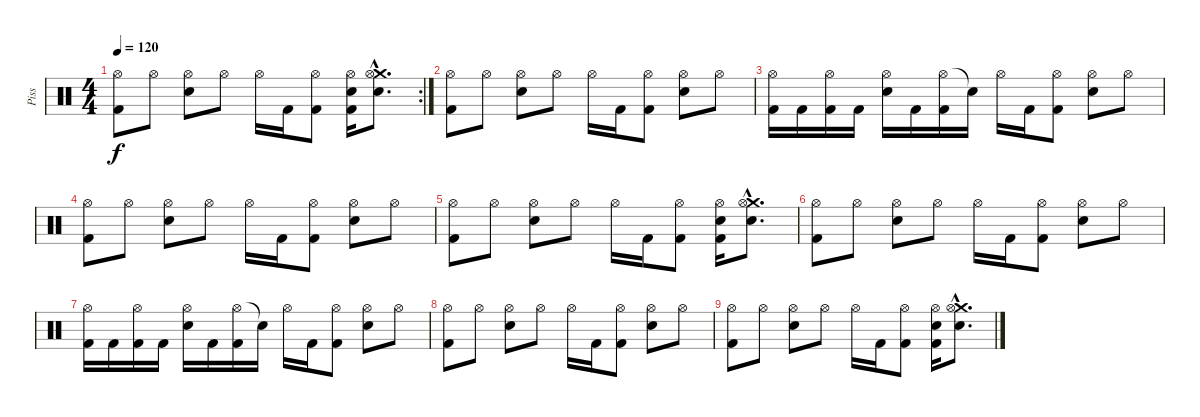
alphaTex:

\track ("Piss" "Piss") {instrument percussion}
\staff {score}
\articulation defaults
\rc 2
\ts (4 4)
\tempo 120
\clef neutral
\ks c
("Hi-Hat (open)" "Kick (hit) 2").8{dy f} "Hi-Hat (open)".8 ("Hi-Hat (open)" "Electric Snare (hit)").8 "Hi-Hat (open)".8 "Hi-Hat (open)".16 "Kick (hit) 2".16 ("Hi-Hat (open)" "Kick (hit) 2").8 ("Hi-Hat (open)" "Electric Snare (hit)" "Kick (hit) 2").16 ("Crash medium (hit)"{hac} "Hi-Hat (open)"{hac} "Electric Snare (hit)"{hac}).8{d} |
("Hi-Hat (open)" "Kick (hit) 2").8 "Hi-Hat (open)".8 ("Hi-Hat (open)" "Electric Snare (hit)").8 "Hi-Hat (open)".8 "Hi-Hat (open)".16 "Kick (hit) 2".16 ("Hi-Hat (open)" "Kick (hit) 2").8 ("Hi-Hat (open)" "Electric Snare (hit)").8 "Hi-Hat (open)".8 |
("Hi-Hat (open)" "Kick (hit) 2").16 "Kick (hit) 2".16 ("Hi-Hat (open)" "Kick (hit) 2").16 "Kick (hit) 2".16 ("Hi-Hat (open)" "Electric Snare (hit)").16 "Kick (hit) 2".16 ("Hi-Hat (open)" "Kick (hit) 2").16 "Snare (hit)"{t}.16 "Hi-Hat (open)".16 "Kick (hit) 2".16 ("Hi-Hat (open)" "Kick (hit) 2").8 ("Hi-Hat (open)" "Electric Snare (hit)").8 "Hi-Hat (open)".8 |
("Hi-Hat (open)" "Kick (hit) 2").8 "Hi-Hat (open)".8 ("Hi-Hat (open)" "Electric Snare (hit)").8 "Hi-Hat (open)".8 "Hi-Hat (open)".16 "Kick (hit) 2".16 ("Hi-Hat (open)" "Kick (hit) 2").8 ("Hi-Hat (open)" "Electric Snare (hit)").8 "Hi-Hat (open)".8 |
("Hi-Hat (open)" "Kick (hit) 2").8{volume 0} "Hi-Hat (open)".8 ("Hi-Hat (open)" "Electric Snare (hit)").8 "Hi-Hat (open)".8 "Hi-Hat (open)".16 "Kick (hit) 2".16 ("Hi-Hat (open)" "Kick (hit) 2").8 ("Hi-Hat (open)" "Electric Snare (hit)" "Kick (hit) 2").16 ("Crash medium (hit)"{hac} "Hi-Hat (open)"{hac} "Electric Snare (hit)"{hac}).8{d} |
("Hi-Hat (open)" "Kick (hit) 2").8 "Hi-Hat (open)".8 ("Hi-Hat (open)" "Electric Snare (hit)").8 "Hi-Hat (open)".8 "Hi-Hat (open)".16 "Kick (hit) 2".16 ("Hi-Hat (open)" "Kick (hit) 2").8 ("Hi-Hat (open)" "Electric Snare (hit)").8 "Hi-Hat (open)".8 |
("Hi-Hat (open)" "Kick (hit) 2").16 "Kick (hit) 2".16 ("Hi-Hat (open)" "Kick (hit) 2").16 "Kick (hit) 2".16 ("Hi-Hat (open)" "Electric Snare (hit)").16 "Kick (hit) 2".16 ("Hi-Hat (open)" "Kick (hit) 2").16 "Snare (hit)"{t}.16 "Hi-Hat (open)".16 "Kick (hit) 2".16 ("Hi-Hat (open)" "Kick (hit) 2").8 ("Hi-Hat (open)" "Electric Snare (hit)").8 "Hi-Hat (open)".8 |
("Hi-Hat (open)" "Kick (hit) 2").8 "Hi-Hat (open)".8 ("Hi-Hat (open)" "Electric Snare (hit)").8 "Hi-Hat (open)".8 "Hi-Hat (open)".16 "Kick (hit) 2".16 ("Hi-Hat (open)" "Kick (hit) 2").8 ("Hi-Hat (open)" "Electric Snare (hit)").8 "Hi-Hat (open)".8 |
("Hi-Hat (open)" "Kick (hit) 2").8 "Hi-Hat (open)".8 ("Hi-Hat (open)" "Electric Snare (hit)").8 "Hi-Hat (open)".8 "Hi-Hat (open)".16 "Kick (hit) 2".16 ("Hi-Hat (open)" "Kick (hit) 2").8 ("Hi-Hat (open)" "Electric Snare (hit)" "Kick (hit) 2").16 ("Crash medium (hit)"{hac} "Hi-Hat (open)"{hac} "Electric Snare (hit)"{hac}).8{d}
